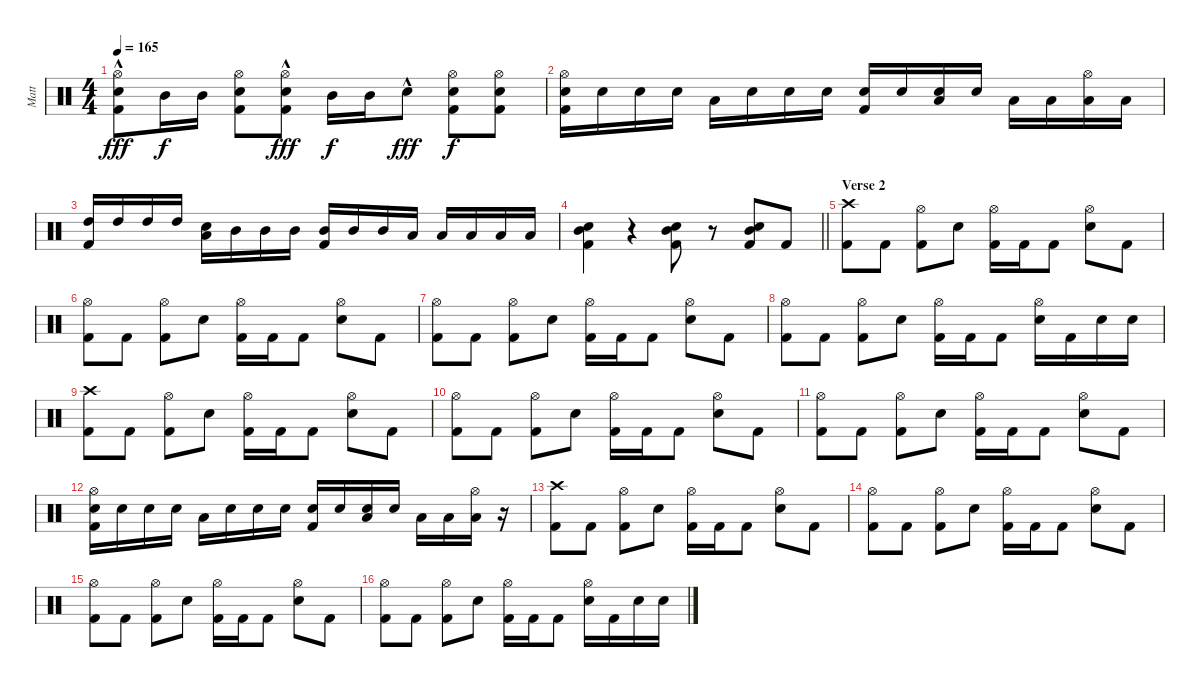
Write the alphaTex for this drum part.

\track ("Matt" "Matt") {instrument percussion}
\staff {score}
\articulation defaults
\ts (4 4)
\tempo 165
\clef neutral
\ks c
("Hi-Hat (open)" "Electric Snare (hit)"{hac} "Kick (hit) 2").8{dy fff} "Mid Tom (hit)".16{dy f} "Mid Tom (hit)".16 ("Hi-Hat (open)" "Electric Snare (hit)" "Kick (hit) 2").8 ("Hi-Hat (open)" "Electric Snare (hit)"{hac} "Kick (hit) 2").8{dy fff} "Mid Tom (hit)".16{dy f} "Mid Tom (hit)".16 "Electric Snare (hit)"{hac}.8{dy fff} ("Hi-Hat (open)" "Electric Snare (hit)" "Kick (hit) 2").8{dy f} ("Hi-Hat (open)" "Electric Snare (hit)" "Kick (hit) 2").8 |
("Hi-Hat (open)" "Electric Snare (hit)" "Kick (hit) 2").16 "Electric Snare (hit)".16 "Electric Snare (hit)".16 "Electric Snare (hit)".16 "Low Tom (hit)".16 "Electric Snare (hit)".16 "Electric Snare (hit)".16 "Electric Snare (hit)".16 ("Electric Snare (hit)" "Kick (hit) 2").16 "Electric Snare (hit)".16 ("Low Tom (hit)" "Electric Snare (hit)").16 "Electric Snare (hit)".16 "Low Tom (hit)".16 "Low Tom (hit)".16 ("Hi-Hat (open)" "Low Tom (hit)").16 "Low Tom (hit)".16 |
("High Tom (hit)" "Kick (hit) 2").16 "High Tom (hit)".16 "High Tom (hit)".16 "High Tom (hit)".16 ("Low Tom (hit)" "Electric Snare (hit)").16 "Mid Tom (hit)".16 "Mid Tom (hit)".16 "Mid Tom (hit)".16 ("Mid Tom (hit)" "Kick (hit) 2").16 "Mid Tom (hit)".16 "Mid Tom (hit)".16 "Low Tom (hit)".16 "Low Tom (hit)".16 "Low Tom (hit)".16 "Low Tom (hit)".16 "Low Tom (hit)".16 |
\barLineRight lightlight
("Mid Tom (hit)" "Electric Snare (hit)" "Kick (hit) 2").4 r.4 ("Mid Tom (hit)" "Electric Snare (hit)" "Kick (hit) 2").8 r.8 ("Mid Tom (hit)" "Electric Snare (hit)" "Kick (hit) 2").8 "Kick (hit) 2".8 |
\section ("" "Verse 2")
("Crash high (hit)" "Kick (hit) 2").8 "Kick (hit) 2".8 ("Hi-Hat (open)" "Kick (hit) 2").8 "Electric Snare (hit)".8 ("Hi-Hat (open)" "Kick (hit) 2").16 "Kick (hit) 2".16 "Kick (hit) 2".8 ("Hi-Hat (open)" "Electric Snare (hit)").8 "Kick (hit) 2".8 |
("Hi-Hat (open)" "Kick (hit) 2").8 "Kick (hit) 2".8 ("Hi-Hat (open)" "Kick (hit) 2").8 "Electric Snare (hit)".8 ("Hi-Hat (open)" "Kick (hit) 2").16 "Kick (hit) 2".16 "Kick (hit) 2".8 ("Hi-Hat (open)" "Electric Snare (hit)").8 "Kick (hit) 2".8 |
("Hi-Hat (open)" "Kick (hit) 2").8 "Kick (hit) 2".8 ("Hi-Hat (open)" "Kick (hit) 2").8 "Electric Snare (hit)".8 ("Hi-Hat (open)" "Kick (hit) 2").16 "Kick (hit) 2".16 "Kick (hit) 2".8 ("Hi-Hat (open)" "Electric Snare (hit)").8 "Kick (hit) 2".8 |
("Hi-Hat (open)" "Kick (hit) 2").8 "Kick (hit) 2".8 ("Hi-Hat (open)" "Kick (hit) 2").8 "Electric Snare (hit)".8 ("Hi-Hat (open)" "Kick (hit) 2").16 "Kick (hit) 2".16 "Kick (hit) 2".8 ("Hi-Hat (open)" "Electric Snare (hit)").16 "Kick (hit) 2".16 "Electric Snare (hit)".16 "Electric Snare (hit)".16 |
("Crash high (hit)" "Kick (hit) 2").8 "Kick (hit) 2".8 ("Hi-Hat (open)" "Kick (hit) 2").8 "Electric Snare (hit)".8 ("Hi-Hat (open)" "Kick (hit) 2").16 "Kick (hit) 2".16 "Kick (hit) 2".8 ("Hi-Hat (open)" "Electric Snare (hit)").8 "Kick (hit) 2".8 |
("Hi-Hat (open)" "Kick (hit) 2").8 "Kick (hit) 2".8 ("Hi-Hat (open)" "Kick (hit) 2").8 "Electric Snare (hit)".8 ("Hi-Hat (open)" "Kick (hit) 2").16 "Kick (hit) 2".16 "Kick (hit) 2".8 ("Hi-Hat (open)" "Electric Snare (hit)").8 "Kick (hit) 2".8 |
("Hi-Hat (open)" "Kick (hit) 2").8 "Kick (hit) 2".8 ("Hi-Hat (open)" "Kick (hit) 2").8 "Electric Snare (hit)".8 ("Hi-Hat (open)" "Kick (hit) 2").16 "Kick (hit) 2".16 "Kick (hit) 2".8 ("Hi-Hat (open)" "Electric Snare (hit)").8 "Kick (hit) 2".8 |
("Hi-Hat (open)" "Electric Snare (hit)" "Kick (hit) 2").16 "Electric Snare (hit)".16 "Electric Snare (hit)".16 "Electric Snare (hit)".16 "Low Tom (hit)".16 "Electric Snare (hit)".16 "Electric Snare (hit)".16 "Electric Snare (hit)".16 ("Electric Snare (hit)" "Kick (hit) 2").16 "Electric Snare (hit)".16 ("Low Tom (hit)" "Electric Snare (hit)").16 "Electric Snare (hit)".16 "Low Tom (hit)".16 "Low Tom (hit)".16 ("Hi-Hat (open)" "Low Tom (hit)").16 r.16 |
("Crash high (hit)" "Kick (hit) 2").8 "Kick (hit) 2".8 ("Hi-Hat (open)" "Kick (hit) 2").8 "Electric Snare (hit)".8 ("Hi-Hat (open)" "Kick (hit) 2").16 "Kick (hit) 2".16 "Kick (hit) 2".8 ("Hi-Hat (open)" "Electric Snare (hit)").8 "Kick (hit) 2".8 |
("Hi-Hat (open)" "Kick (hit) 2").8 "Kick (hit) 2".8 ("Hi-Hat (open)" "Kick (hit) 2").8 "Electric Snare (hit)".8 ("Hi-Hat (open)" "Kick (hit) 2").16 "Kick (hit) 2".16 "Kick (hit) 2".8 ("Hi-Hat (open)" "Electric Snare (hit)").8 "Kick (hit) 2".8 |
("Hi-Hat (open)" "Kick (hit) 2").8 "Kick (hit) 2".8 ("Hi-Hat (open)" "Kick (hit) 2").8 "Electric Snare (hit)".8 ("Hi-Hat (open)" "Kick (hit) 2").16 "Kick (hit) 2".16 "Kick (hit) 2".8 ("Hi-Hat (open)" "Electric Snare (hit)").8 "Kick (hit) 2".8 |
("Hi-Hat (open)" "Kick (hit) 2").8 "Kick (hit) 2".8 ("Hi-Hat (open)" "Kick (hit) 2").8 "Electric Snare (hit)".8 ("Hi-Hat (open)" "Kick (hit) 2").16 "Kick (hit) 2".16 "Kick (hit) 2".8 ("Hi-Hat (open)" "Electric Snare (hit)").16 "Kick (hit) 2".16 "Electric Snare (hit)".16 "Electric Snare (hit)".16
